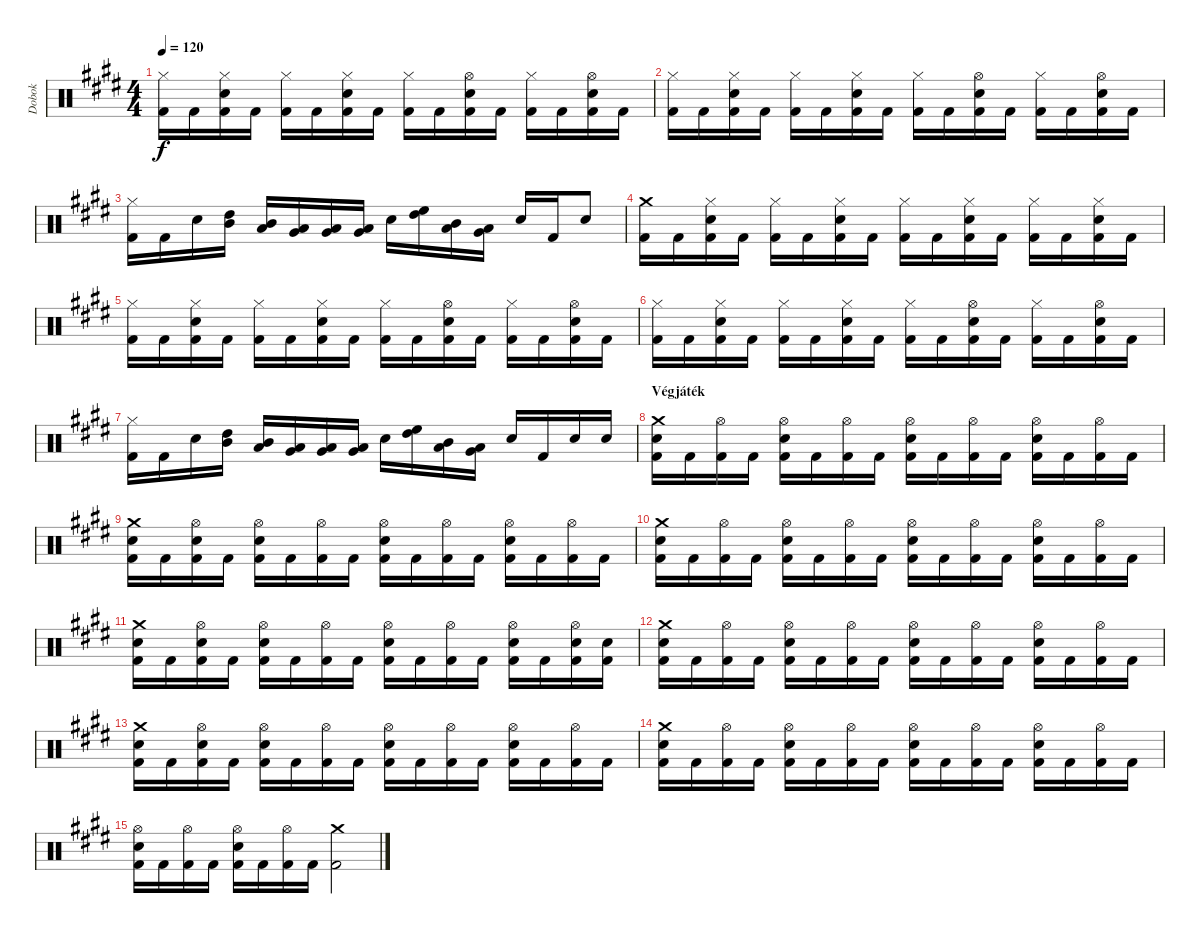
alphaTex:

\track ("Dobok" "Dobok") {instrument percussion}
\staff {score}
\articulation defaults
\ts (4 4)
\tempo 120
\clef neutral
\ks c#minor
("Hi-Hat (closed)" "Kick (hit) 2").16{dy f} "Kick (hit) 2".16 ("Hi-Hat (closed)" "Snare (hit) 2" "Kick (hit) 2").16 "Kick (hit) 2".16 ("Hi-Hat (closed)" "Kick (hit) 2").16 "Kick (hit) 2".16 ("Hi-Hat (closed)" "Snare (hit) 2" "Kick (hit) 2").16 "Kick (hit) 2".16 ("Hi-Hat (closed)" "Kick (hit) 2").16 "Kick (hit) 2".16 ("Hi-Hat (open)" "Snare (hit) 2" "Kick (hit) 2").16 "Kick (hit) 2".16 ("Hi-Hat (closed)" "Kick (hit) 2").16 "Kick (hit) 2".16 ("Hi-Hat (open)" "Snare (hit) 2" "Kick (hit) 2").16 "Kick (hit) 2".16 |
("Hi-Hat (closed)" "Kick (hit) 2").16 "Kick (hit) 2".16 ("Hi-Hat (closed)" "Snare (hit) 2" "Kick (hit) 2").16 "Kick (hit) 2".16 ("Hi-Hat (closed)" "Kick (hit) 2").16 "Kick (hit) 2".16 ("Hi-Hat (closed)" "Snare (hit) 2" "Kick (hit) 2").16 "Kick (hit) 2".16 ("Hi-Hat (closed)" "Kick (hit) 2").16 "Kick (hit) 2".16 ("Hi-Hat (open)" "Snare (hit) 2" "Kick (hit) 2").16 "Kick (hit) 2".16 ("Hi-Hat (closed)" "Kick (hit) 2").16 "Kick (hit) 2".16 ("Hi-Hat (open)" "Snare (hit) 2" "Kick (hit) 2").16 "Kick (hit) 2".16 |
("Hi-Hat (closed)" "Kick (hit) 2").16 "Kick (hit) 2".16 "Snare (hit) 2".16 ("High Tom (hit)" "Mid Tom (hit)").16 ("Mid Tom (hit)" "Low Tom (hit)").16 ("Low Tom (hit)" "Very Low Tom (hit)").16 ("Very Low Tom (hit)" "Low Floor Tom (hit)").16 ("Very Low Tom (hit)" "Low Floor Tom (hit)").16 "Snare (hit) 2".16 ("High Tom (hit)" "High Floor Tom (hit)").16 ("Low Tom (hit)" "Mid Tom (hit)").16 ("Very Low Tom (hit)" "Low Tom (hit)").16 "Snare (hit) 2".16 "Kick (hit) 2".16 "Snare (hit) 2".8 |
("Crash medium (hit)" "Kick (hit) 2").16 "Kick (hit) 2".16 ("Hi-Hat (closed)" "Snare (hit) 2" "Kick (hit) 2").16 "Kick (hit) 2".16 ("Hi-Hat (closed)" "Kick (hit) 2").16 "Kick (hit) 2".16 ("Hi-Hat (closed)" "Snare (hit) 2" "Kick (hit) 2").16 "Kick (hit) 2".16 ("Hi-Hat (closed)" "Kick (hit) 2").16 "Kick (hit) 2".16 ("Hi-Hat (closed)" "Snare (hit) 2" "Kick (hit) 2").16 "Kick (hit) 2".16 ("Hi-Hat (closed)" "Kick (hit) 2").16 "Kick (hit) 2".16 ("Hi-Hat (closed)" "Snare (hit) 2" "Kick (hit) 2").16 "Kick (hit) 2".16 |
("Hi-Hat (closed)" "Kick (hit) 2").16 "Kick (hit) 2".16 ("Hi-Hat (closed)" "Snare (hit) 2" "Kick (hit) 2").16 "Kick (hit) 2".16 ("Hi-Hat (closed)" "Kick (hit) 2").16 "Kick (hit) 2".16 ("Hi-Hat (closed)" "Snare (hit) 2" "Kick (hit) 2").16 "Kick (hit) 2".16 ("Hi-Hat (closed)" "Kick (hit) 2").16 "Kick (hit) 2".16 ("Hi-Hat (open)" "Snare (hit) 2" "Kick (hit) 2").16 "Kick (hit) 2".16 ("Hi-Hat (closed)" "Kick (hit) 2").16 "Kick (hit) 2".16 ("Hi-Hat (open)" "Snare (hit) 2" "Kick (hit) 2").16 "Kick (hit) 2".16 |
("Hi-Hat (closed)" "Kick (hit) 2").16 "Kick (hit) 2".16 ("Hi-Hat (closed)" "Snare (hit) 2" "Kick (hit) 2").16 "Kick (hit) 2".16 ("Hi-Hat (closed)" "Kick (hit) 2").16 "Kick (hit) 2".16 ("Hi-Hat (closed)" "Snare (hit) 2" "Kick (hit) 2").16 "Kick (hit) 2".16 ("Hi-Hat (closed)" "Kick (hit) 2").16 "Kick (hit) 2".16 ("Hi-Hat (open)" "Snare (hit) 2" "Kick (hit) 2").16 "Kick (hit) 2".16 ("Hi-Hat (closed)" "Kick (hit) 2").16 "Kick (hit) 2".16 ("Hi-Hat (open)" "Snare (hit) 2" "Kick (hit) 2").16 "Kick (hit) 2".16 |
("Hi-Hat (closed)" "Kick (hit) 2").16 "Kick (hit) 2".16 "Snare (hit) 2".16 ("High Tom (hit)" "Mid Tom (hit)").16 ("Mid Tom (hit)" "Low Tom (hit)").16 ("Low Tom (hit)" "Very Low Tom (hit)").16 ("Very Low Tom (hit)" "Low Floor Tom (hit)").16 ("Very Low Tom (hit)" "Low Floor Tom (hit)").16 "Snare (hit) 2".16 ("High Tom (hit)" "High Floor Tom (hit)").16 ("Low Tom (hit)" "Mid Tom (hit)").16 ("Very Low Tom (hit)" "Low Tom (hit)").16 "Snare (hit) 2".16 "Kick (hit) 2".16 "Snare (hit) 2".16 "Snare (hit) 2".16 |
\section ("" "Végjáték")
("Crash medium (hit)" "Snare (hit) 2" "Kick (hit) 2").16 "Kick (hit) 2".16 ("Hi-Hat (open)" "Kick (hit) 2").16 "Kick (hit) 2".16 ("Hi-Hat (open)" "Snare (hit) 2" "Kick (hit) 2").16 "Kick (hit) 2".16 ("Hi-Hat (open)" "Kick (hit) 2").16 "Kick (hit) 2".16 ("Hi-Hat (open)" "Snare (hit) 2" "Kick (hit) 2").16 "Kick (hit) 2".16 ("Hi-Hat (open)" "Kick (hit) 2").16 "Kick (hit) 2".16 ("Hi-Hat (open)" "Snare (hit) 2" "Kick (hit) 2").16 "Kick (hit) 2".16 ("Hi-Hat (open)" "Kick (hit) 2").16 "Kick (hit) 2".16 |
("Crash medium (hit)" "Snare (hit) 2" "Kick (hit) 2").16 "Kick (hit) 2".16 ("Hi-Hat (open)" "Snare (hit) 2" "Kick (hit) 2").16 "Kick (hit) 2".16 ("Hi-Hat (open)" "Snare (hit) 2" "Kick (hit) 2").16 "Kick (hit) 2".16 ("Hi-Hat (open)" "Kick (hit) 2").16 "Kick (hit) 2".16 ("Hi-Hat (open)" "Snare (hit) 2" "Kick (hit) 2").16 "Kick (hit) 2".16 ("Hi-Hat (open)" "Kick (hit) 2").16 "Kick (hit) 2".16 ("Hi-Hat (open)" "Snare (hit) 2" "Kick (hit) 2").16 "Kick (hit) 2".16 ("Hi-Hat (open)" "Kick (hit) 2").16 "Kick (hit) 2".16 |
("Crash medium (hit)" "Snare (hit) 2" "Kick (hit) 2").16 "Kick (hit) 2".16 ("Hi-Hat (open)" "Kick (hit) 2").16 "Kick (hit) 2".16 ("Hi-Hat (open)" "Snare (hit) 2" "Kick (hit) 2").16 "Kick (hit) 2".16 ("Hi-Hat (open)" "Kick (hit) 2").16 "Kick (hit) 2".16 ("Hi-Hat (open)" "Snare (hit) 2" "Kick (hit) 2").16 "Kick (hit) 2".16 ("Hi-Hat (open)" "Kick (hit) 2").16 "Kick (hit) 2".16 ("Hi-Hat (open)" "Snare (hit) 2" "Kick (hit) 2").16 "Kick (hit) 2".16 ("Hi-Hat (open)" "Kick (hit) 2").16 "Kick (hit) 2".16 |
("Crash medium (hit)" "Snare (hit) 2" "Kick (hit) 2").16 "Kick (hit) 2".16 ("Hi-Hat (open)" "Snare (hit) 2" "Kick (hit) 2").16 "Kick (hit) 2".16 ("Hi-Hat (open)" "Snare (hit) 2" "Kick (hit) 2").16 "Kick (hit) 2".16 ("Hi-Hat (open)" "Kick (hit) 2").16 "Kick (hit) 2".16 ("Hi-Hat (open)" "Snare (hit) 2" "Kick (hit) 2").16 "Kick (hit) 2".16 ("Hi-Hat (open)" "Kick (hit) 2").16 "Kick (hit) 2".16 ("Hi-Hat (open)" "Snare (hit) 2" "Kick (hit) 2").16 "Kick (hit) 2".16 ("Hi-Hat (open)" "Snare (hit) 2" "Kick (hit) 2").16 ("Snare (hit) 2" "Kick (hit) 2").16 |
("Crash medium (hit)" "Snare (hit) 2" "Kick (hit) 2").16 "Kick (hit) 2".16 ("Hi-Hat (open)" "Kick (hit) 2").16 "Kick (hit) 2".16 ("Hi-Hat (open)" "Snare (hit) 2" "Kick (hit) 2").16 "Kick (hit) 2".16 ("Hi-Hat (open)" "Kick (hit) 2").16 "Kick (hit) 2".16 ("Hi-Hat (open)" "Snare (hit) 2" "Kick (hit) 2").16 "Kick (hit) 2".16 ("Hi-Hat (open)" "Kick (hit) 2").16 "Kick (hit) 2".16 ("Hi-Hat (open)" "Snare (hit) 2" "Kick (hit) 2").16 "Kick (hit) 2".16 ("Hi-Hat (open)" "Kick (hit) 2").16 "Kick (hit) 2".16 |
("Crash medium (hit)" "Snare (hit) 2" "Kick (hit) 2").16 "Kick (hit) 2".16 ("Hi-Hat (open)" "Snare (hit) 2" "Kick (hit) 2").16 "Kick (hit) 2".16 ("Hi-Hat (open)" "Snare (hit) 2" "Kick (hit) 2").16 "Kick (hit) 2".16 ("Hi-Hat (open)" "Kick (hit) 2").16 "Kick (hit) 2".16 ("Hi-Hat (open)" "Snare (hit) 2" "Kick (hit) 2").16 "Kick (hit) 2".16 ("Hi-Hat (open)" "Kick (hit) 2").16 "Kick (hit) 2".16 ("Hi-Hat (open)" "Snare (hit) 2" "Kick (hit) 2").16 "Kick (hit) 2".16 ("Hi-Hat (open)" "Kick (hit) 2").16 "Kick (hit) 2".16 |
("Crash medium (hit)" "Snare (hit) 2" "Kick (hit) 2").16 "Kick (hit) 2".16 ("Hi-Hat (open)" "Kick (hit) 2").16 "Kick (hit) 2".16 ("Hi-Hat (open)" "Snare (hit) 2" "Kick (hit) 2").16 "Kick (hit) 2".16 ("Hi-Hat (open)" "Kick (hit) 2").16 "Kick (hit) 2".16 ("Hi-Hat (open)" "Snare (hit) 2" "Kick (hit) 2").16 "Kick (hit) 2".16 ("Hi-Hat (open)" "Kick (hit) 2").16 "Kick (hit) 2".16 ("Hi-Hat (open)" "Snare (hit) 2" "Kick (hit) 2").16 "Kick (hit) 2".16 ("Hi-Hat (open)" "Kick (hit) 2").16 "Kick (hit) 2".16 |
("Hi-Hat (open)" "Snare (hit) 2" "Kick (hit) 2").16 "Kick (hit) 2".16 ("Hi-Hat (open)" "Kick (hit) 2").16 "Kick (hit) 2".16 ("Hi-Hat (open)" "Snare (hit) 2" "Kick (hit) 2").16 "Kick (hit) 2".16 ("Hi-Hat (open)" "Kick (hit) 2").16 "Kick (hit) 2".16 ("Crash medium (hit)" "Kick (hit) 2").2
